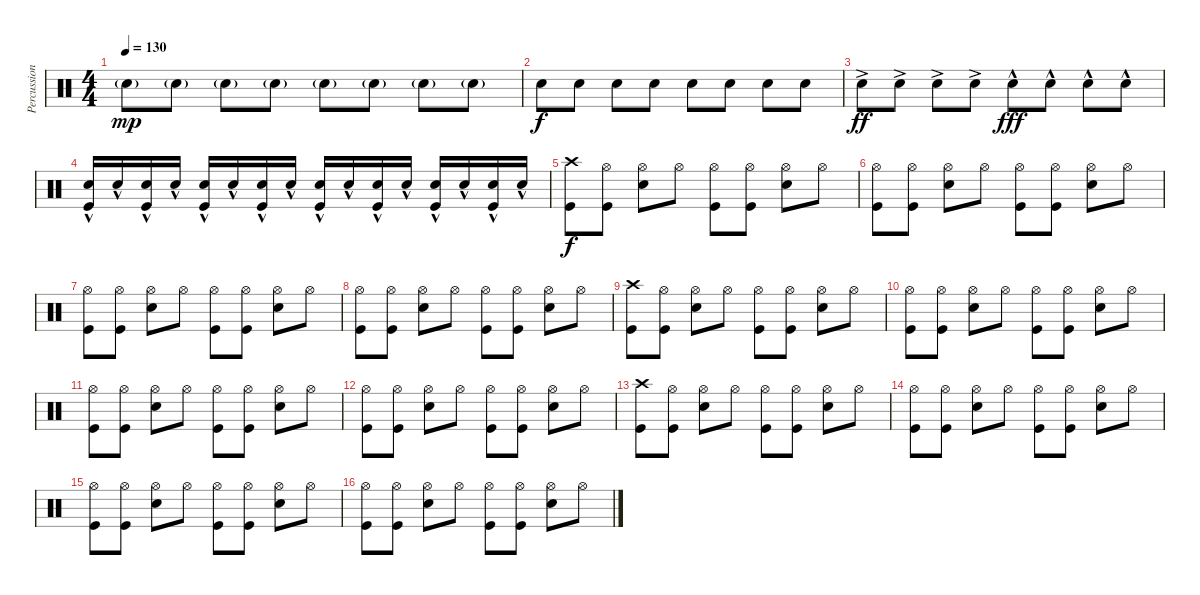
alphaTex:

\track ("Percussion" "Percussion") {instrument percussion}
\staff {score}
\articulation defaults
\ts (4 4)
\tempo 130
\clef neutral
\ks c "Electric Snare (hit)"{g}.8{dy mp volume 16} "Electric Snare (hit)"{g}.8 "Electric Snare (hit)"{g}.8 "Electric Snare (hit)"{g}.8 "Electric Snare (hit)"{g}.8 "Electric Snare (hit)"{g}.8 "Electric Snare (hit)"{g}.8 "Electric Snare (hit)"{g}.8
|
"Electric Snare (hit)".8{dy f} "Electric Snare (hit)".8 "Electric Snare (hit)".8 "Electric Snare (hit)".8 "Electric Snare (hit)".8 "Electric Snare (hit)".8 "Electric Snare (hit)".8 "Electric Snare (hit)".8 |
"Electric Snare (hit)"{ac}.8{dy ff} "Electric Snare (hit)"{ac}.8 "Electric Snare (hit)"{ac}.8 "Electric Snare (hit)"{ac}.8 "Electric Snare (hit)"{hac}.8{dy fff} "Electric Snare (hit)"{hac}.8 "Electric Snare (hit)"{hac}.8 "Electric Snare (hit)"{hac}.8 |
("Electric Snare (hit)"{hac} "Kick (hit)").16 "Electric Snare (hit)"{hac}.16 ("Electric Snare (hit)"{hac} "Kick (hit)").16 "Electric Snare (hit)"{hac}.16 ("Electric Snare (hit)"{hac} "Kick (hit)").16 "Electric Snare (hit)"{hac}.16 ("Electric Snare (hit)"{hac} "Kick (hit)").16 "Electric Snare (hit)"{hac}.16 ("Electric Snare (hit)"{hac} "Kick (hit)").16 "Electric Snare (hit)"{hac}.16 ("Electric Snare (hit)"{hac} "Kick (hit)").16 "Electric Snare (hit)"{hac}.16 ("Electric Snare (hit)"{hac} "Kick (hit)").16 "Electric Snare (hit)"{hac}.16 ("Electric Snare (hit)"{hac} "Kick (hit)").16 "Electric Snare (hit)"{hac}.16 |
("Crash high (hit)" "Kick (hit)").8{dy f} ("Hi-Hat (open)" "Kick (hit)").8 ("Hi-Hat (open)" "Electric Snare (hit)").8 "Hi-Hat (open)".8 ("Hi-Hat (open)" "Kick (hit)").8 ("Hi-Hat (open)" "Kick (hit)").8 ("Hi-Hat (open)" "Electric Snare (hit)").8 "Hi-Hat (open)".8 |
("Hi-Hat (open)" "Kick (hit)").8 ("Hi-Hat (open)" "Kick (hit)").8 ("Hi-Hat (open)" "Electric Snare (hit)").8 "Hi-Hat (open)".8 ("Hi-Hat (open)" "Kick (hit)").8 ("Hi-Hat (open)" "Kick (hit)").8 ("Hi-Hat (open)" "Electric Snare (hit)").8 "Hi-Hat (open)".8 |
("Hi-Hat (open)" "Kick (hit)").8 ("Hi-Hat (open)" "Kick (hit)").8 ("Hi-Hat (open)" "Electric Snare (hit)").8 "Hi-Hat (open)".8 ("Hi-Hat (open)" "Kick (hit)").8 ("Hi-Hat (open)" "Kick (hit)").8 ("Hi-Hat (open)" "Electric Snare (hit)").8 "Hi-Hat (open)".8 |
("Hi-Hat (open)" "Kick (hit)").8 ("Hi-Hat (open)" "Kick (hit)").8 ("Hi-Hat (open)" "Electric Snare (hit)").8 "Hi-Hat (open)".8 ("Hi-Hat (open)" "Kick (hit)").8 ("Hi-Hat (open)" "Kick (hit)").8 ("Hi-Hat (open)" "Electric Snare (hit)").8 "Hi-Hat (open)".8 |
("Crash high (hit)" "Kick (hit)").8 ("Hi-Hat (open)" "Kick (hit)").8 ("Hi-Hat (open)" "Electric Snare (hit)").8 "Hi-Hat (open)".8 ("Hi-Hat (open)" "Kick (hit)").8 ("Hi-Hat (open)" "Kick (hit)").8 ("Hi-Hat (open)" "Electric Snare (hit)").8 "Hi-Hat (open)".8 |
("Hi-Hat (open)" "Kick (hit)").8 ("Hi-Hat (open)" "Kick (hit)").8 ("Hi-Hat (open)" "Electric Snare (hit)").8 "Hi-Hat (open)".8 ("Hi-Hat (open)" "Kick (hit)").8 ("Hi-Hat (open)" "Kick (hit)").8 ("Hi-Hat (open)" "Electric Snare (hit)").8 "Hi-Hat (open)".8 |
("Hi-Hat (open)" "Kick (hit)").8 ("Hi-Hat (open)" "Kick (hit)").8 ("Hi-Hat (open)" "Electric Snare (hit)").8 "Hi-Hat (open)".8 ("Hi-Hat (open)" "Kick (hit)").8 ("Hi-Hat (open)" "Kick (hit)").8 ("Hi-Hat (open)" "Electric Snare (hit)").8 "Hi-Hat (open)".8 |
("Hi-Hat (open)" "Kick (hit)").8 ("Hi-Hat (open)" "Kick (hit)").8 ("Hi-Hat (open)" "Electric Snare (hit)").8 "Hi-Hat (open)".8 ("Hi-Hat (open)" "Kick (hit)").8 ("Hi-Hat (open)" "Kick (hit)").8 ("Hi-Hat (open)" "Electric Snare (hit)").8 "Hi-Hat (open)".8 |
("Crash high (hit)" "Kick (hit)").8 ("Hi-Hat (open)" "Kick (hit)").8 ("Hi-Hat (open)" "Electric Snare (hit)").8 "Hi-Hat (open)".8 ("Hi-Hat (open)" "Kick (hit)").8 ("Hi-Hat (open)" "Kick (hit)").8 ("Hi-Hat (open)" "Electric Snare (hit)").8 "Hi-Hat (open)".8 |
("Hi-Hat (open)" "Kick (hit)").8 ("Hi-Hat (open)" "Kick (hit)").8 ("Hi-Hat (open)" "Electric Snare (hit)").8 "Hi-Hat (open)".8 ("Hi-Hat (open)" "Kick (hit)").8 ("Hi-Hat (open)" "Kick (hit)").8 ("Hi-Hat (open)" "Electric Snare (hit)").8 "Hi-Hat (open)".8 |
("Hi-Hat (open)" "Kick (hit)").8 ("Hi-Hat (open)" "Kick (hit)").8 ("Hi-Hat (open)" "Electric Snare (hit)").8 "Hi-Hat (open)".8 ("Hi-Hat (open)" "Kick (hit)").8 ("Hi-Hat (open)" "Kick (hit)").8 ("Hi-Hat (open)" "Electric Snare (hit)").8 "Hi-Hat (open)".8 |
("Hi-Hat (open)" "Kick (hit)").8 ("Hi-Hat (open)" "Kick (hit)").8 ("Hi-Hat (open)" "Electric Snare (hit)").8 "Hi-Hat (open)".8 ("Hi-Hat (open)" "Kick (hit)").8 ("Hi-Hat (open)" "Kick (hit)").8 ("Hi-Hat (open)" "Electric Snare (hit)").8 "Hi-Hat (open)".8
